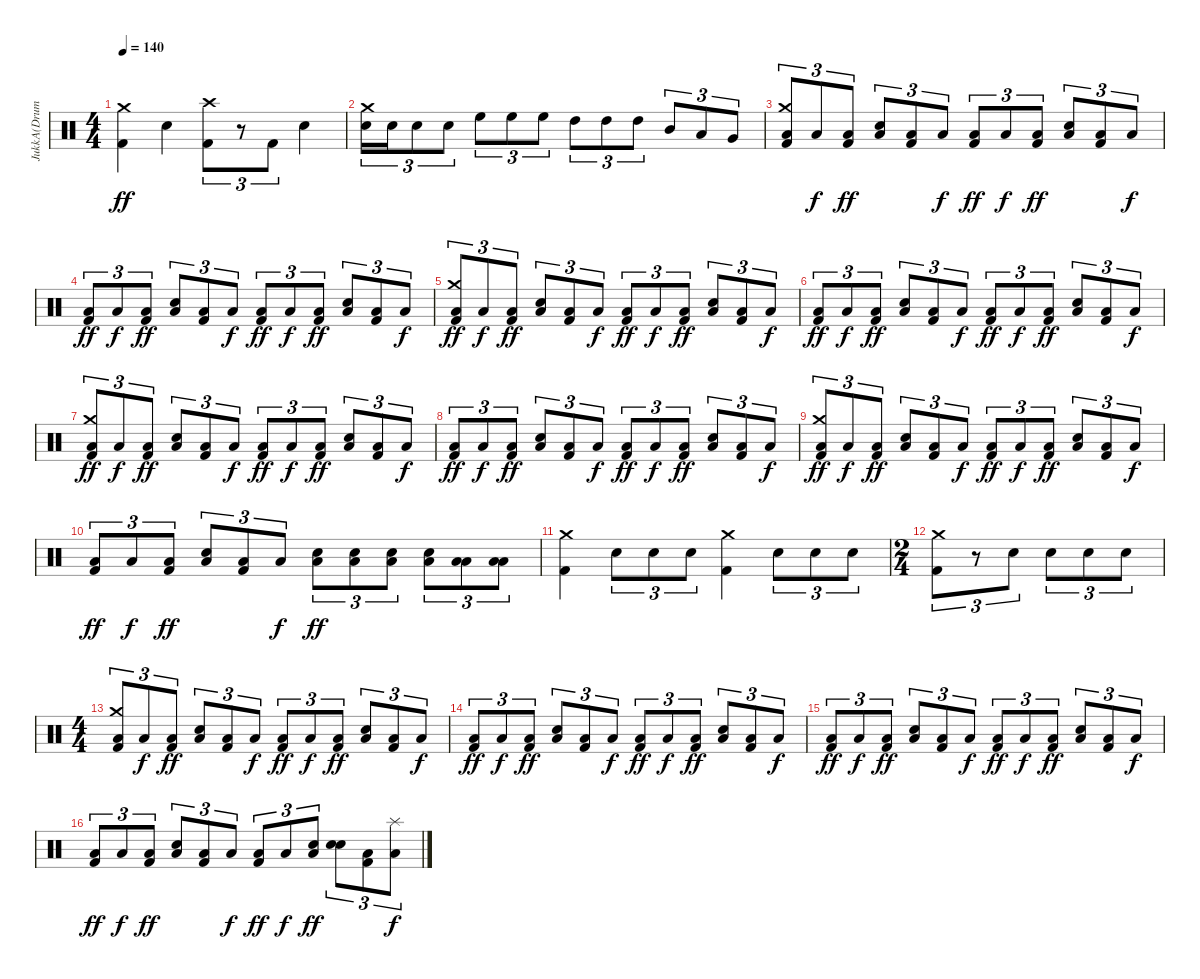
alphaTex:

\track ("JukkA(Drums)" "JukkA(Drum") {instrument percussion}
\staff {score}
\articulation defaults
\ts (4 4)
\tempo 140
\clef neutral
\ks c
("Kick (hit) 2" "Crash medium (hit)").4{dy ff} "Snare (hit) 2".4 ("Kick (hit) 2" "Crash high (hit)").8{tu (3 2)} r.8{tu (3 2)} "Kick (hit) 2".8{tu (3 2)} "Snare (hit) 2".4 |
("Snare (hit) 2" "Crash medium (hit)").16{tu (3 2)} "Snare (hit) 2".16{tu (3 2)} "Snare (hit) 2".8{tu (3 2)} "Snare (hit) 2".8{tu (3 2)} "High Floor Tom (hit)".8{tu (3 2)} "High Floor Tom (hit)".8{tu (3 2)} "High Floor Tom (hit)".8{tu (3 2)} "High Tom (hit)".8{tu (3 2)} "High Tom (hit)".8{tu (3 2)} "High Tom (hit)".8{tu (3 2)} "Mid Tom (hit)".8{tu (3 2)} "Low Tom (hit)".8{tu (3 2)} "Very Low Tom (hit)".8{tu (3 2)} |
("Kick (hit) 2" "Crash medium (hit)" "Low Floor Tom (hit)").8{tu (3 2)} "Low Floor Tom (hit)".8{tu (3 2) dy f} ("Kick (hit) 2" "Low Floor Tom (hit)").8{tu (3 2) dy ff} ("Snare (hit) 2" "Low Floor Tom (hit)").8{tu (3 2)} ("Kick (hit) 2" "Low Floor Tom (hit)").8{tu (3 2)} "Low Floor Tom (hit)".8{tu (3 2) dy f} ("Kick (hit) 2" "Low Floor Tom (hit)").8{tu (3 2) dy ff} "Low Floor Tom (hit)".8{tu (3 2) dy f} ("Kick (hit) 2" "Low Floor Tom (hit)").8{tu (3 2) dy ff} ("Snare (hit) 2" "Low Floor Tom (hit)").8{tu (3 2)} ("Kick (hit) 2" "Low Floor Tom (hit)").8{tu (3 2)} "Low Floor Tom (hit)".8{tu (3 2) dy f} |
("Kick (hit) 2" "Low Floor Tom (hit)").8{tu (3 2) dy ff} "Low Floor Tom (hit)".8{tu (3 2) dy f} ("Kick (hit) 2" "Low Floor Tom (hit)").8{tu (3 2) dy ff} ("Snare (hit) 2" "Low Floor Tom (hit)").8{tu (3 2)} ("Kick (hit) 2" "Low Floor Tom (hit)").8{tu (3 2)} "Low Floor Tom (hit)".8{tu (3 2) dy f} ("Kick (hit) 2" "Low Floor Tom (hit)").8{tu (3 2) dy ff} "Low Floor Tom (hit)".8{tu (3 2) dy f} ("Kick (hit) 2" "Low Floor Tom (hit)").8{tu (3 2) dy ff} ("Snare (hit) 2" "Low Floor Tom (hit)").8{tu (3 2)} ("Kick (hit) 2" "Low Floor Tom (hit)").8{tu (3 2)} "Low Floor Tom (hit)".8{tu (3 2) dy f} |
("Kick (hit) 2" "Crash medium (hit)" "Low Floor Tom (hit)").8{tu (3 2) dy ff} "Low Floor Tom (hit)".8{tu (3 2) dy f} ("Kick (hit) 2" "Low Floor Tom (hit)").8{tu (3 2) dy ff} ("Snare (hit) 2" "Low Floor Tom (hit)").8{tu (3 2)} ("Kick (hit) 2" "Low Floor Tom (hit)").8{tu (3 2)} "Low Floor Tom (hit)".8{tu (3 2) dy f} ("Kick (hit) 2" "Low Floor Tom (hit)").8{tu (3 2) dy ff} "Low Floor Tom (hit)".8{tu (3 2) dy f} ("Kick (hit) 2" "Low Floor Tom (hit)").8{tu (3 2) dy ff} ("Snare (hit) 2" "Low Floor Tom (hit)").8{tu (3 2)} ("Kick (hit) 2" "Low Floor Tom (hit)").8{tu (3 2)} "Low Floor Tom (hit)".8{tu (3 2) dy f} |
("Kick (hit) 2" "Low Floor Tom (hit)").8{tu (3 2) dy ff} "Low Floor Tom (hit)".8{tu (3 2) dy f} ("Kick (hit) 2" "Low Floor Tom (hit)").8{tu (3 2) dy ff} ("Snare (hit) 2" "Low Floor Tom (hit)").8{tu (3 2)} ("Kick (hit) 2" "Low Floor Tom (hit)").8{tu (3 2)} "Low Floor Tom (hit)".8{tu (3 2) dy f} ("Kick (hit) 2" "Low Floor Tom (hit)").8{tu (3 2) dy ff} "Low Floor Tom (hit)".8{tu (3 2) dy f} ("Kick (hit) 2" "Low Floor Tom (hit)").8{tu (3 2) dy ff} ("Snare (hit) 2" "Low Floor Tom (hit)").8{tu (3 2)} ("Kick (hit) 2" "Low Floor Tom (hit)").8{tu (3 2)} "Low Floor Tom (hit)".8{tu (3 2) dy f} |
("Kick (hit) 2" "Crash medium (hit)" "Low Floor Tom (hit)").8{tu (3 2) dy ff} "Low Floor Tom (hit)".8{tu (3 2) dy f} ("Kick (hit) 2" "Low Floor Tom (hit)").8{tu (3 2) dy ff} ("Snare (hit) 2" "Low Floor Tom (hit)").8{tu (3 2)} ("Kick (hit) 2" "Low Floor Tom (hit)").8{tu (3 2)} "Low Floor Tom (hit)".8{tu (3 2) dy f} ("Kick (hit) 2" "Low Floor Tom (hit)").8{tu (3 2) dy ff} "Low Floor Tom (hit)".8{tu (3 2) dy f} ("Kick (hit) 2" "Low Floor Tom (hit)").8{tu (3 2) dy ff} ("Snare (hit) 2" "Low Floor Tom (hit)").8{tu (3 2)} ("Kick (hit) 2" "Low Floor Tom (hit)").8{tu (3 2)} "Low Floor Tom (hit)".8{tu (3 2) dy f} |
("Kick (hit) 2" "Low Floor Tom (hit)").8{tu (3 2) dy ff} "Low Floor Tom (hit)".8{tu (3 2) dy f} ("Kick (hit) 2" "Low Floor Tom (hit)").8{tu (3 2) dy ff} ("Snare (hit) 2" "Low Floor Tom (hit)").8{tu (3 2)} ("Kick (hit) 2" "Low Floor Tom (hit)").8{tu (3 2)} "Low Floor Tom (hit)".8{tu (3 2) dy f} ("Kick (hit) 2" "Low Floor Tom (hit)").8{tu (3 2) dy ff} "Low Floor Tom (hit)".8{tu (3 2) dy f} ("Kick (hit) 2" "Low Floor Tom (hit)").8{tu (3 2) dy ff} ("Snare (hit) 2" "Low Floor Tom (hit)").8{tu (3 2)} ("Kick (hit) 2" "Low Floor Tom (hit)").8{tu (3 2)} "Low Floor Tom (hit)".8{tu (3 2) dy f} |
("Kick (hit) 2" "Crash medium (hit)" "Low Floor Tom (hit)").8{tu (3 2) dy ff} "Low Floor Tom (hit)".8{tu (3 2) dy f} ("Kick (hit) 2" "Low Floor Tom (hit)").8{tu (3 2) dy ff} ("Snare (hit) 2" "Low Floor Tom (hit)").8{tu (3 2)} ("Kick (hit) 2" "Low Floor Tom (hit)").8{tu (3 2)} "Low Floor Tom (hit)".8{tu (3 2) dy f} ("Kick (hit) 2" "Low Floor Tom (hit)").8{tu (3 2) dy ff} "Low Floor Tom (hit)".8{tu (3 2) dy f} ("Kick (hit) 2" "Low Floor Tom (hit)").8{tu (3 2) dy ff} ("Snare (hit) 2" "Low Floor Tom (hit)").8{tu (3 2)} ("Kick (hit) 2" "Low Floor Tom (hit)").8{tu (3 2)} "Low Floor Tom (hit)".8{tu (3 2) dy f} |
("Kick (hit) 2" "Low Floor Tom (hit)").8{tu (3 2) dy ff} "Low Floor Tom (hit)".8{tu (3 2) dy f} ("Kick (hit) 2" "Low Floor Tom (hit)").8{tu (3 2) dy ff} ("Snare (hit) 2" "Low Floor Tom (hit)").8{tu (3 2)} ("Kick (hit) 2" "Low Floor Tom (hit)").8{tu (3 2)} "Low Floor Tom (hit)".8{tu (3 2) dy f} ("Snare (hit) 2" "Low Floor Tom (hit)").8{tu (3 2) dy ff} ("Snare (hit) 2" "Low Floor Tom (hit)").8{tu (3 2)} ("Snare (hit) 2" "Low Floor Tom (hit)").8{tu (3 2)} ("Snare (hit) 2" "Low Floor Tom (hit)").8{tu (3 2)} ("Low Tom (hit)" "Low Floor Tom (hit)").8{tu (3 2)} ("Low Floor Tom (hit)" "Low Floor Tom (hit)").8{tu (3 2)} |
("Kick (hit) 2" "Crash medium (hit)").4 "Snare (hit) 2".8{tu (3 2)} "Snare (hit) 2".8{tu (3 2)} "Snare (hit) 2".8{tu (3 2)} ("Kick (hit) 2" "Crash medium (hit)").4 "Snare (hit) 2".8{tu (3 2)} "Snare (hit) 2".8{tu (3 2)} "Snare (hit) 2".8{tu (3 2)} |
\ts (2 4)
("Kick (hit) 2" "Crash medium (hit)").8{tu (3 2)} r.8{tu (3 2)} "Snare (hit) 2".8{tu (3 2)} "Snare (hit) 2".8{tu (3 2)} "Snare (hit) 2".8{tu (3 2)} "Snare (hit) 2".8{tu (3 2)} |
\ts (4 4)
("Kick (hit) 2" "Crash medium (hit)" "Low Floor Tom (hit)").8{tu (3 2)} "Low Floor Tom (hit)".8{tu (3 2) dy f} ("Kick (hit) 2" "Low Floor Tom (hit)").8{tu (3 2) dy ff} ("Snare (hit) 2" "Low Floor Tom (hit)").8{tu (3 2)} ("Kick (hit) 2" "Low Floor Tom (hit)").8{tu (3 2)} "Low Floor Tom (hit)".8{tu (3 2) dy f} ("Kick (hit) 2" "Low Floor Tom (hit)").8{tu (3 2) dy ff} "Low Floor Tom (hit)".8{tu (3 2) dy f} ("Kick (hit) 2" "Low Floor Tom (hit)").8{tu (3 2) dy ff} ("Snare (hit) 2" "Low Floor Tom (hit)").8{tu (3 2)} ("Kick (hit) 2" "Low Floor Tom (hit)").8{tu (3 2)} "Low Floor Tom (hit)".8{tu (3 2) dy f} |
("Kick (hit) 2" "Low Floor Tom (hit)").8{tu (3 2) dy ff} "Low Floor Tom (hit)".8{tu (3 2) dy f} ("Kick (hit) 2" "Low Floor Tom (hit)").8{tu (3 2) dy ff} ("Snare (hit) 2" "Low Floor Tom (hit)").8{tu (3 2)} ("Kick (hit) 2" "Low Floor Tom (hit)").8{tu (3 2)} "Low Floor Tom (hit)".8{tu (3 2) dy f} ("Kick (hit) 2" "Low Floor Tom (hit)").8{tu (3 2) dy ff} "Low Floor Tom (hit)".8{tu (3 2) dy f} ("Kick (hit) 2" "Low Floor Tom (hit)").8{tu (3 2) dy ff} ("Snare (hit) 2" "Low Floor Tom (hit)").8{tu (3 2)} ("Kick (hit) 2" "Low Floor Tom (hit)").8{tu (3 2)} "Low Floor Tom (hit)".8{tu (3 2) dy f} |
("Kick (hit) 2" "Low Floor Tom (hit)").8{tu (3 2) dy ff} "Low Floor Tom (hit)".8{tu (3 2) dy f} ("Kick (hit) 2" "Low Floor Tom (hit)").8{tu (3 2) dy ff} ("Snare (hit) 2" "Low Floor Tom (hit)").8{tu (3 2)} ("Kick (hit) 2" "Low Floor Tom (hit)").8{tu (3 2)} "Low Floor Tom (hit)".8{tu (3 2) dy f} ("Kick (hit) 2" "Low Floor Tom (hit)").8{tu (3 2) dy ff} "Low Floor Tom (hit)".8{tu (3 2) dy f} ("Kick (hit) 2" "Low Floor Tom (hit)").8{tu (3 2) dy ff} ("Snare (hit) 2" "Low Floor Tom (hit)").8{tu (3 2)} ("Kick (hit) 2" "Low Floor Tom (hit)").8{tu (3 2)} "Low Floor Tom (hit)".8{tu (3 2) dy f} |
("Kick (hit) 2" "Low Floor Tom (hit)").8{tu (3 2) dy ff} "Low Floor Tom (hit)".8{tu (3 2) dy f} ("Kick (hit) 2" "Low Floor Tom (hit)").8{tu (3 2) dy ff} ("Snare (hit) 2" "Low Floor Tom (hit)").8{tu (3 2)} ("Kick (hit) 2" "Low Floor Tom (hit)").8{tu (3 2)} "Low Floor Tom (hit)".8{tu (3 2) dy f} ("Kick (hit) 2" "Low Floor Tom (hit)").8{tu (3 2) dy ff} "Low Floor Tom (hit)".8{tu (3 2) dy f} ("Snare (hit) 2" "Low Floor Tom (hit)").8{tu (3 2) dy ff} ("Snare (hit) 2" "Snare (hit)").8{tu (3 2)} ("Kick (hit) 2" "Low Floor Tom (hit)").8{tu (3 2)} ("Splash (hit)" "Low Floor Tom (hit)").8{tu (3 2) dy f}
